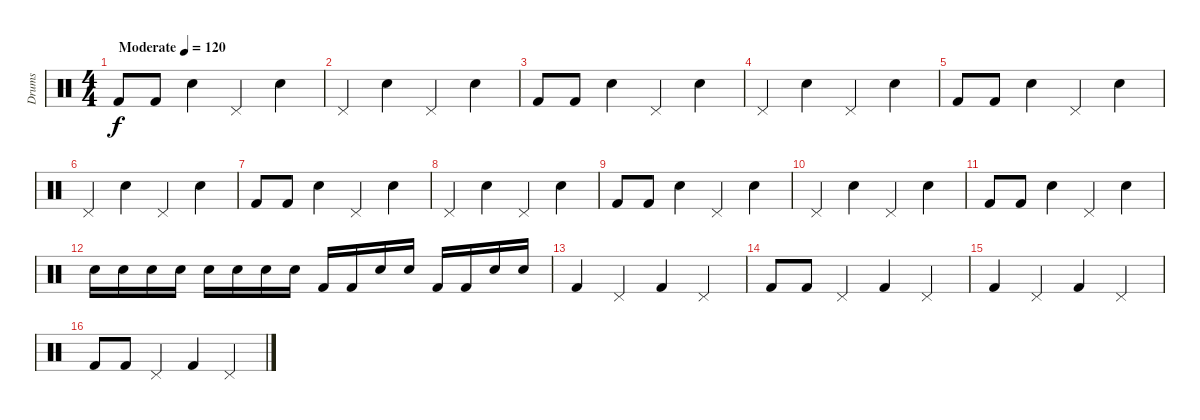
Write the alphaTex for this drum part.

\track ("Drums" "Drums") {instrument percussion}
\staff {score}
\articulation defaults
\ts (4 4)
\tempo (120 "Moderate")
\clef neutral
\ks c "Kick (hit) 2".8{dy f} "Kick (hit) 2".8 "Snare (hit) 2".4 "Pedal Hi-Hat (hit)".4 "Snare (hit) 2".4
|
"Pedal Hi-Hat (hit)".4 "Snare (hit) 2".4 "Pedal Hi-Hat (hit)".4 "Snare (hit) 2".4 |
"Kick (hit) 2".8 "Kick (hit) 2".8 "Snare (hit) 2".4 "Pedal Hi-Hat (hit)".4 "Snare (hit) 2".4 |
"Pedal Hi-Hat (hit)".4 "Snare (hit) 2".4 "Pedal Hi-Hat (hit)".4 "Snare (hit) 2".4 |
"Kick (hit) 2".8 "Kick (hit) 2".8 "Snare (hit) 2".4 "Pedal Hi-Hat (hit)".4 "Snare (hit) 2".4 |
"Pedal Hi-Hat (hit)".4 "Snare (hit) 2".4 "Pedal Hi-Hat (hit)".4 "Snare (hit) 2".4 |
"Kick (hit) 2".8 "Kick (hit) 2".8 "Snare (hit) 2".4 "Pedal Hi-Hat (hit)".4 "Snare (hit) 2".4 |
"Pedal Hi-Hat (hit)".4 "Snare (hit) 2".4 "Pedal Hi-Hat (hit)".4 "Snare (hit) 2".4 |
"Kick (hit) 2".8 "Kick (hit) 2".8 "Snare (hit) 2".4 "Pedal Hi-Hat (hit)".4 "Snare (hit) 2".4 |
"Pedal Hi-Hat (hit)".4 "Snare (hit) 2".4 "Pedal Hi-Hat (hit)".4 "Snare (hit) 2".4 |
"Kick (hit) 2".8 "Kick (hit) 2".8 "Snare (hit) 2".4 "Pedal Hi-Hat (hit)".4 "Snare (hit) 2".4 |
"Snare (hit) 2".16 "Snare (hit) 2".16 "Snare (hit) 2".16 "Snare (hit) 2".16 "Snare (hit) 2".16 "Snare (hit) 2".16 "Snare (hit) 2".16 "Snare (hit) 2".16 "Kick (hit) 2".16 "Kick (hit) 2".16 "Snare (hit) 2".16 "Snare (hit) 2".16 "Kick (hit) 2".16 "Kick (hit) 2".16 "Snare (hit) 2".16 "Snare (hit) 2".16 |
"Kick (hit) 2".4 "Pedal Hi-Hat (hit)".4 "Kick (hit) 2".4 "Pedal Hi-Hat (hit)".4 |
"Kick (hit) 2".8 "Kick (hit) 2".8 "Pedal Hi-Hat (hit)".4 "Kick (hit) 2".4 "Pedal Hi-Hat (hit)".4 |
"Kick (hit) 2".4 "Pedal Hi-Hat (hit)".4 "Kick (hit) 2".4 "Pedal Hi-Hat (hit)".4 |
"Kick (hit) 2".8 "Kick (hit) 2".8 "Pedal Hi-Hat (hit)".4 "Kick (hit) 2".4 "Pedal Hi-Hat (hit)".4
